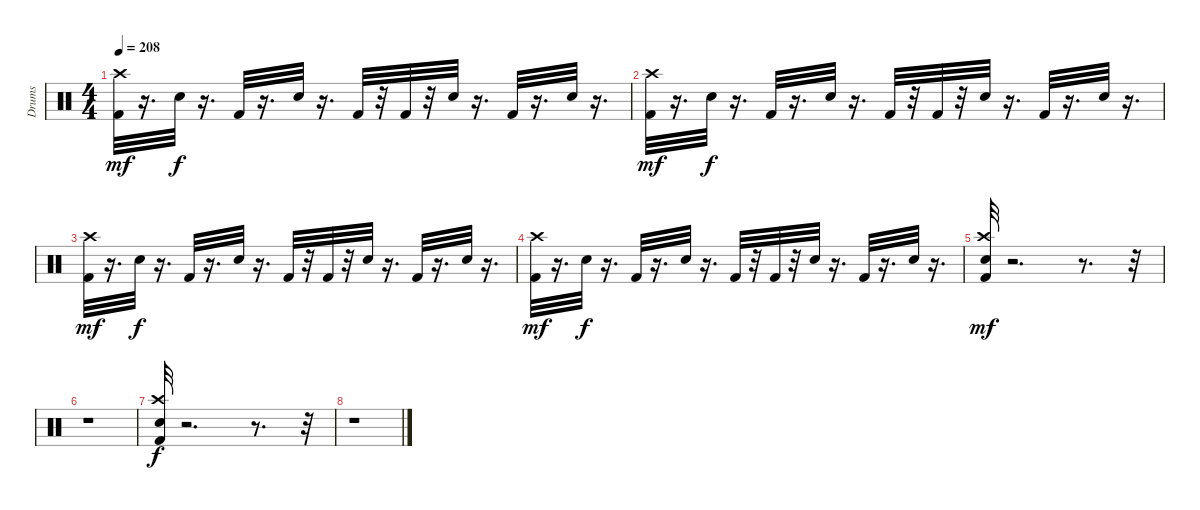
\track ("Drums" "Drums") {instrument percussion}
\staff {score}
\articulation defaults
\ts (4 4)
\tempo 208
\clef neutral
\ks c
("Kick (hit) 2" "Crash high (hit)").32{dy mf} r.16{d} "Electric Snare (hit)".32{dy f} r.16{d} "Kick (hit) 2".32 r.16{d} "Electric Snare (hit)".32 r.16{d} "Kick (hit) 2".32 r.32 "Kick (hit) 2".32 r.32 "Electric Snare (hit)".32 r.16{d} "Kick (hit) 2".32 r.16{d} "Electric Snare (hit)".32 r.16{d} |
("Kick (hit) 2" "Crash high (hit)").32{dy mf} r.16{d} "Electric Snare (hit)".32{dy f} r.16{d} "Kick (hit) 2".32 r.16{d} "Electric Snare (hit)".32 r.16{d} "Kick (hit) 2".32 r.32 "Kick (hit) 2".32 r.32 "Electric Snare (hit)".32 r.16{d} "Kick (hit) 2".32 r.16{d} "Electric Snare (hit)".32 r.16{d} |
("Kick (hit) 2" "Crash high (hit)").32{dy mf} r.16{d} "Electric Snare (hit)".32{dy f} r.16{d} "Kick (hit) 2".32 r.16{d} "Electric Snare (hit)".32 r.16{d} "Kick (hit) 2".32 r.32 "Kick (hit) 2".32 r.32 "Electric Snare (hit)".32 r.16{d} "Kick (hit) 2".32 r.16{d} "Electric Snare (hit)".32 r.16{d} |
("Kick (hit) 2" "Crash high (hit)").32{dy mf} r.16{d} "Electric Snare (hit)".32{dy f} r.16{d} "Kick (hit) 2".32 r.16{d} "Electric Snare (hit)".32 r.16{d} "Kick (hit) 2".32 r.32 "Kick (hit) 2".32 r.32 "Electric Snare (hit)".32 r.16{d} "Kick (hit) 2".32 r.16{d} "Electric Snare (hit)".32 r.16{d} |
("Kick (hit) 2" "Crash high (hit)" "Electric Snare (hit)").32{dy mf} r.2{d} r.8{d} r.32 |
r.1 |
("Crash high (hit)" "Electric Snare (hit)" "Kick (hit) 2").32{dy f} r.2{d} r.8{d} r.32 |
r.1
